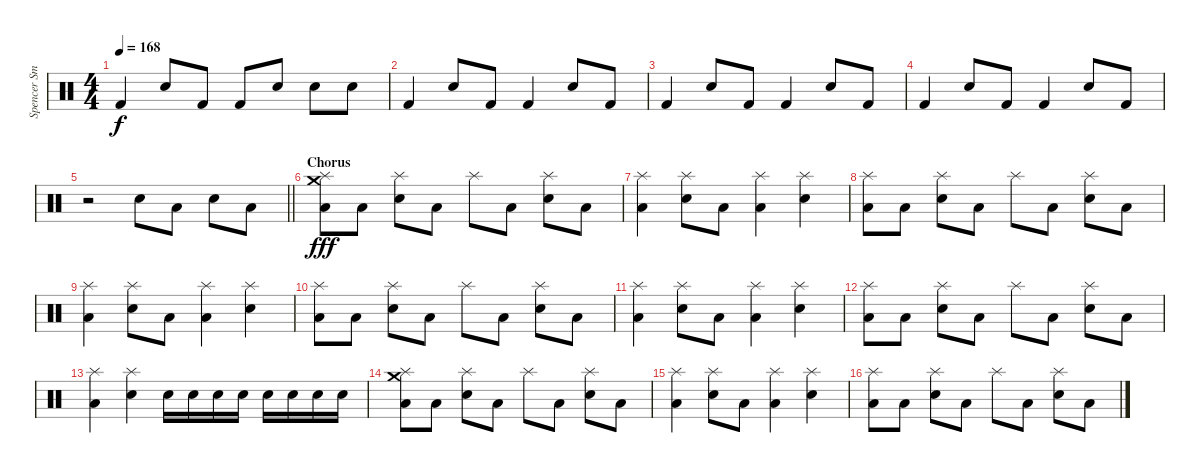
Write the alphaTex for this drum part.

\track ("Spencer Smith" "Spencer Sm") {instrument percussion}
\staff {score}
\articulation defaults
\ts (4 4)
\tempo 168
\clef neutral
\ks c "Kick (hit) 2".4{dy f} "Electric Snare (hit)".8 "Kick (hit) 2".8 "Kick (hit) 2".8 "Electric Snare (hit)".8 "Electric Snare (hit)".8 "Electric Snare (hit)".8
|
"Kick (hit) 2".4 "Electric Snare (hit)".8 "Kick (hit) 2".8 "Kick (hit) 2".4 "Electric Snare (hit)".8 "Kick (hit) 2".8 |
"Kick (hit) 2".4 "Electric Snare (hit)".8 "Kick (hit) 2".8 "Kick (hit) 2".4 "Electric Snare (hit)".8 "Kick (hit) 2".8 |
"Kick (hit) 2".4 "Electric Snare (hit)".8 "Kick (hit) 2".8 "Kick (hit) 2".4 "Electric Snare (hit)".8 "Kick (hit) 2".8 |
\barLineRight lightlight
r.2 "Electric Snare (hit)".8 "Low Floor Tom (hit)".8 "Electric Snare (hit)".8 "Low Floor Tom (hit)".8 |
\section ("" "Chorus")
("Crash medium (hit)" "Splash (hit)" "Low Floor Tom (hit)").8{dy fff} "Low Floor Tom (hit)".8 ("Splash (hit)" "Electric Snare (hit)").8 "Low Floor Tom (hit)".8 "Splash (hit)".8 "Low Floor Tom (hit)".8 ("Splash (hit)" "Electric Snare (hit)").8 "Low Floor Tom (hit)".8 |
("Splash (hit)" "Low Floor Tom (hit)").4 ("Splash (hit)" "Electric Snare (hit)").8 "Low Floor Tom (hit)".8 ("Splash (hit)" "Low Floor Tom (hit)").4 ("Splash (hit)" "Electric Snare (hit)").4 |
("Splash (hit)" "Low Floor Tom (hit)").8 "Low Floor Tom (hit)".8 ("Splash (hit)" "Electric Snare (hit)").8 "Low Floor Tom (hit)".8 "Splash (hit)".8 "Low Floor Tom (hit)".8 ("Splash (hit)" "Electric Snare (hit)").8 "Low Floor Tom (hit)".8 |
("Splash (hit)" "Low Floor Tom (hit)").4 ("Splash (hit)" "Electric Snare (hit)").8 "Low Floor Tom (hit)".8 ("Splash (hit)" "Low Floor Tom (hit)").4 ("Splash (hit)" "Electric Snare (hit)").4 |
("Splash (hit)" "Low Floor Tom (hit)").8 "Low Floor Tom (hit)".8 ("Splash (hit)" "Electric Snare (hit)").8 "Low Floor Tom (hit)".8 "Splash (hit)".8 "Low Floor Tom (hit)".8 ("Splash (hit)" "Electric Snare (hit)").8 "Low Floor Tom (hit)".8 |
("Splash (hit)" "Low Floor Tom (hit)").4 ("Splash (hit)" "Electric Snare (hit)").8 "Low Floor Tom (hit)".8 ("Splash (hit)" "Low Floor Tom (hit)").4 ("Splash (hit)" "Electric Snare (hit)").4 |
("Splash (hit)" "Low Floor Tom (hit)").8 "Low Floor Tom (hit)".8 ("Splash (hit)" "Electric Snare (hit)").8 "Low Floor Tom (hit)".8 "Splash (hit)".8 "Low Floor Tom (hit)".8 ("Splash (hit)" "Electric Snare (hit)").8 "Low Floor Tom (hit)".8 |
("Splash (hit)" "Low Floor Tom (hit)").4 ("Splash (hit)" "Electric Snare (hit)").4 "Electric Snare (hit)".16 "Electric Snare (hit)".16 "Electric Snare (hit)".16 "Electric Snare (hit)".16 "Electric Snare (hit)".16 "Electric Snare (hit)".16 "Electric Snare (hit)".16 "Electric Snare (hit)".16 |
("Crash medium (hit)" "Splash (hit)" "Low Floor Tom (hit)").8 "Low Floor Tom (hit)".8 ("Splash (hit)" "Electric Snare (hit)").8 "Low Floor Tom (hit)".8 "Splash (hit)".8 "Low Floor Tom (hit)".8 ("Splash (hit)" "Electric Snare (hit)").8 "Low Floor Tom (hit)".8 |
("Splash (hit)" "Low Floor Tom (hit)").4 ("Splash (hit)" "Electric Snare (hit)").8 "Low Floor Tom (hit)".8 ("Splash (hit)" "Low Floor Tom (hit)").4 ("Splash (hit)" "Electric Snare (hit)").4 |
("Splash (hit)" "Low Floor Tom (hit)").8 "Low Floor Tom (hit)".8 ("Splash (hit)" "Electric Snare (hit)").8 "Low Floor Tom (hit)".8 "Splash (hit)".8 "Low Floor Tom (hit)".8 ("Splash (hit)" "Electric Snare (hit)").8 "Low Floor Tom (hit)".8
